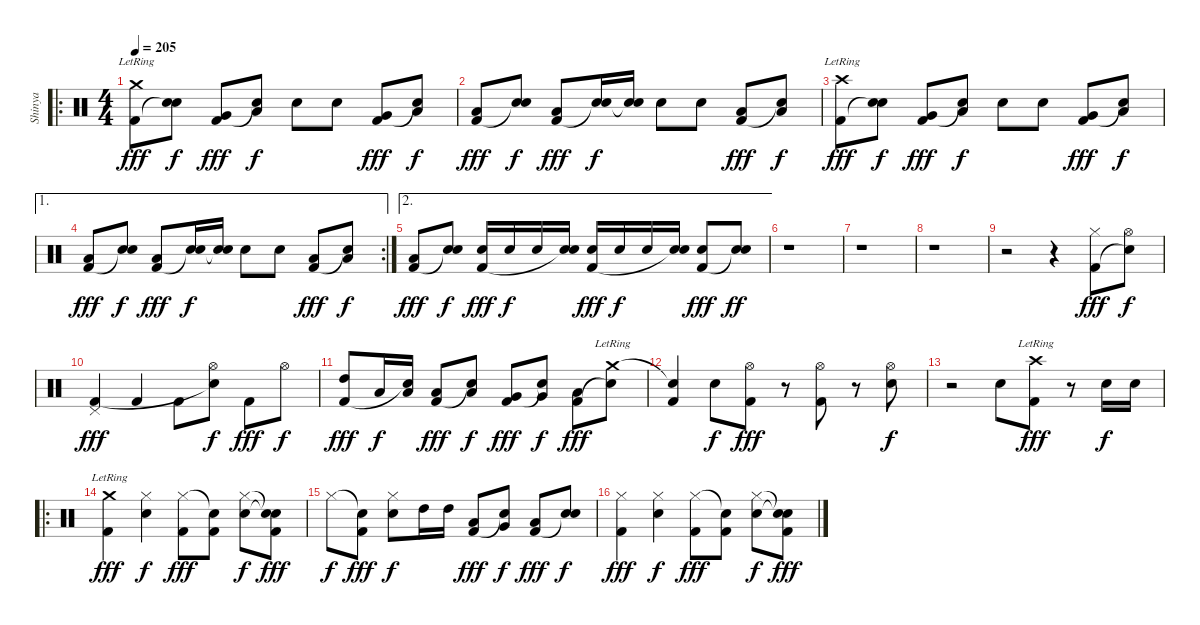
\track ("Shinya" "Shinya") {instrument percussion}
\staff {score}
\articulation defaults
\ro
\ts (4 4)
\tempo 205
\clef neutral
\ks c
("Crash medium (hit)"{lr} "Kick (hit) 2").8{dy fff} ("Electric Snare (hit)" "Snare (hit)"{t}).8{dy f} ("Very Low Tom (hit)" "Kick (hit) 2").8{dy fff} ("Low Floor Tom (hit)" "Snare (hit)"{t}).8{dy f} "Electric Snare (hit)".8 "Electric Snare (hit)".8 ("Very Low Tom (hit)" "Kick (hit) 2").8{dy fff} ("Low Floor Tom (hit)" "Snare (hit)"{t}).8{dy f} |
("Low Floor Tom (hit)" "Kick (hit) 2").8{dy fff} ("Electric Snare (hit)" "Snare (hit)"{t}).8{dy f} ("Low Floor Tom (hit)" "Kick (hit) 2").8{dy fff} ("Electric Snare (hit)" "Snare (hit)"{t}).16{dy f} ("Electric Snare (hit)" "Snare (hit)"{t}).16 "Electric Snare (hit)".8 "Electric Snare (hit)".8 ("Low Floor Tom (hit)" "Kick (hit) 2").8{dy fff} ("Low Floor Tom (hit)" "Snare (hit)"{t}).8{dy f} |
("Crash high (hit)"{lr} "Kick (hit) 2").8{dy fff} ("Electric Snare (hit)" "Snare (hit)"{t}).8{dy f} ("Very Low Tom (hit)" "Kick (hit) 2").8{dy fff} ("Low Floor Tom (hit)" "Snare (hit)"{t}).8{dy f} "Electric Snare (hit)".8 "Electric Snare (hit)".8 ("Very Low Tom (hit)" "Kick (hit) 2").8{dy fff} ("Low Floor Tom (hit)" "Snare (hit)"{t}).8{dy f} |
\ae 1
\rc 2
("Low Floor Tom (hit)" "Kick (hit) 2").8{dy fff} ("Electric Snare (hit)" "Snare (hit)"{t}).8{dy f} ("Low Floor Tom (hit)" "Kick (hit) 2").8{dy fff} ("Electric Snare (hit)" "Snare (hit)"{t}).16{dy f} ("Electric Snare (hit)" "Snare (hit)"{t}).16 "Electric Snare (hit)".8 "Electric Snare (hit)".8 ("Low Floor Tom (hit)" "Kick (hit) 2").8{dy fff} ("Low Floor Tom (hit)" "Snare (hit)"{t}).8{dy f} |
\ae 2
("Low Floor Tom (hit)" "Kick (hit) 2").8{dy fff} ("Electric Snare (hit)" "Snare (hit)"{t}).8{dy f} ("Electric Snare (hit)" "Kick (hit) 2").16{dy fff} "Electric Snare (hit)".16{dy f} "Electric Snare (hit)".16 ("Electric Snare (hit)" "Snare (hit)"{t}).16 ("Electric Snare (hit)" "Kick (hit) 2").16{dy fff} "Electric Snare (hit)".16{dy f} "Electric Snare (hit)".16 ("Electric Snare (hit)" "Snare (hit)"{t}).16 ("Electric Snare (hit)" "Kick (hit) 2").8{dy fff} ("Electric Snare (hit)" "Snare (hit)"{t}).8{dy ff} |
r.1 |
r.1 |
r.1 |
r.2 r.4 ("Hi-Hat (closed)" "Kick (hit) 2").8{dy fff} ("Hi-Hat (open)" "Snare (hit)"{t}).8{dy f} |
("Pedal Hi-Hat (hit)" "Kick (hit) 2").4{dy fff} "Kick (hit) 2".4 "Kick (hit) 2".8 ("Hi-Hat (open)" "Snare (hit)"{t}).8{dy f} "Kick (hit) 2".8{dy fff} "Hi-Hat (open)".8{dy f} |
("High Tom (hit)" "Kick (hit) 2").8{dy fff} "Low Tom (hit)".16{dy f} ("Low Tom (hit)" "Snare (hit)"{t}).16 ("Low Tom (hit)" "Kick (hit) 2").8{dy fff} ("Low Tom (hit)" "Snare (hit)"{t}).8{dy f} ("Very Low Tom (hit)" "Kick (hit) 2").8{dy fff} ("Very Low Tom (hit)" "Snare (hit)"{t}).8{dy f} ("Low Floor Tom (hit)" "Kick (hit) 2").8{dy fff} ("Crash medium (hit)"{lr} "Snare (hit)"{t}).8 |
("Snare (hit)"{t} "Kick (hit) 2").4 "Electric Snare (hit)".8{dy f} ("Hi-Hat (open)" "Kick (hit) 2").8{dy fff} r.8 ("Hi-Hat (open)" "Kick (hit) 2").8 r.8 ("Hi-Hat (open)" "Electric Snare (hit)").8{dy f} |
r.2 "Electric Snare (hit)".8 ("Crash high (hit)"{lr} "Kick (hit) 2").8{dy fff} r.8 "Electric Snare (hit)".16{dy f} "Electric Snare (hit)".16 |
\ro
("Crash medium (hit)"{lr} "Kick (hit) 2").4{dy fff} ("Hi-Hat (closed)" "Electric Snare (hit)").4{dy f} ("Hi-Hat (closed)" "Kick (hit) 2").8{dy fff} ("Snare (hit)"{t} "Kick (hit) 2").8 ("Hi-Hat (closed)" "Electric Snare (hit)").8{dy f} ("Snare (hit)"{t} "Snare (hit)"{t} "Kick (hit) 2").8{dy fff} |
"Hi-Hat (closed)".8{dy f} ("Snare (hit)"{t} "Kick (hit) 2").8{dy fff} ("Hi-Hat (closed)" "Electric Snare (hit)").8{dy f} "High Tom (hit)".16 "High Tom (hit)".16 ("Low Tom (hit)" "Kick (hit) 2").8{dy fff} ("Very Low Tom (hit)" "Snare (hit)"{t}).8{dy f} ("Low Floor Tom (hit)" "Kick (hit) 2").8{dy fff} ("Electric Snare (hit)" "Snare (hit)"{t}).8{dy f} |
("Hi-Hat (closed)" "Kick (hit) 2").4{dy fff} ("Hi-Hat (closed)" "Electric Snare (hit)").4{dy f} ("Hi-Hat (closed)" "Kick (hit) 2").8{dy fff} ("Snare (hit)"{t} "Kick (hit) 2").8 ("Hi-Hat (closed)" "Electric Snare (hit)").8{dy f} ("Snare (hit)"{t} "Snare (hit)"{t} "Kick (hit) 2").8{dy fff}
